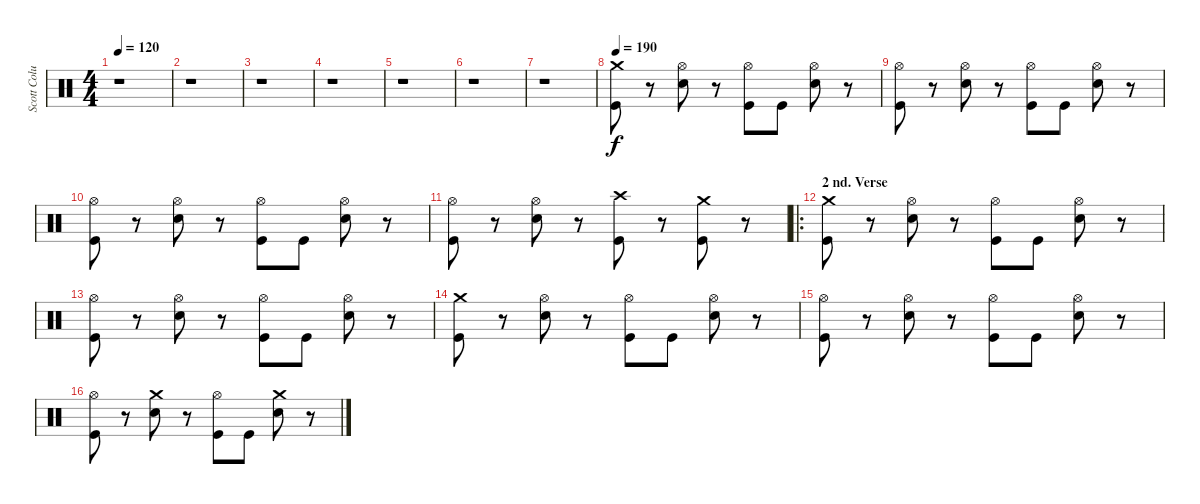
\track ("Scott Columbus" "Scott Colu") {instrument percussion}
\staff {score}
\articulation defaults
\ts (4 4)
\tempo 120
\clef neutral
\ks c
r.1{dy f} |
r.1 |
r.1 |
r.1 |
r.1 |
r.1 |
r.1 |
\tempo 190
("Crash medium (hit)" "Kick (hit)").8 r.8 ("Hi-Hat (open)" "Snare (hit) 2").8 r.8 ("Hi-Hat (open)" "Kick (hit)").8 "Kick (hit)".8 ("Hi-Hat (open)" "Snare (hit) 2").8 r.8 |
("Hi-Hat (open)" "Kick (hit)").8 r.8 ("Hi-Hat (open)" "Snare (hit) 2").8 r.8 ("Hi-Hat (open)" "Kick (hit)").8 "Kick (hit)".8 ("Hi-Hat (open)" "Snare (hit) 2").8 r.8 |
("Hi-Hat (open)" "Kick (hit)").8 r.8 ("Hi-Hat (open)" "Snare (hit) 2").8 r.8 ("Hi-Hat (open)" "Kick (hit)").8 "Kick (hit)".8 ("Hi-Hat (open)" "Snare (hit) 2").8 r.8 |
("Hi-Hat (open)" "Kick (hit)").8 r.8 ("Hi-Hat (open)" "Snare (hit) 2").8 r.8 ("Crash high (hit)" "Kick (hit)").8 r.8 ("Crash medium (hit)" "Kick (hit)").8 r.8 |
\ro
\section ("" "2 nd. Verse")
("Crash medium (hit)" "Kick (hit)").8 r.8 ("Hi-Hat (open)" "Snare (hit) 2").8 r.8 ("Hi-Hat (open)" "Kick (hit)").8 "Kick (hit)".8 ("Hi-Hat (open)" "Snare (hit) 2").8 r.8 |
("Hi-Hat (open)" "Kick (hit)").8 r.8 ("Hi-Hat (open)" "Snare (hit) 2").8 r.8 ("Hi-Hat (open)" "Kick (hit)").8 "Kick (hit)".8 ("Hi-Hat (open)" "Snare (hit) 2").8 r.8 |
("Crash medium (hit)" "Kick (hit)").8 r.8 ("Hi-Hat (open)" "Snare (hit) 2").8 r.8 ("Hi-Hat (open)" "Kick (hit)").8 "Kick (hit)".8 ("Hi-Hat (open)" "Snare (hit) 2").8 r.8 |
("Hi-Hat (open)" "Kick (hit)").8 r.8 ("Hi-Hat (open)" "Snare (hit) 2").8 r.8 ("Hi-Hat (open)" "Kick (hit)").8 "Kick (hit)".8 ("Hi-Hat (open)" "Snare (hit) 2").8 r.8 |
("Hi-Hat (open)" "Kick (hit)").8 r.8 ("Crash medium (hit)" "Snare (hit) 2").8 r.8 ("Hi-Hat (open)" "Kick (hit)").8 "Kick (hit)".8 ("Crash medium (hit)" "Snare (hit) 2").8 r.8
